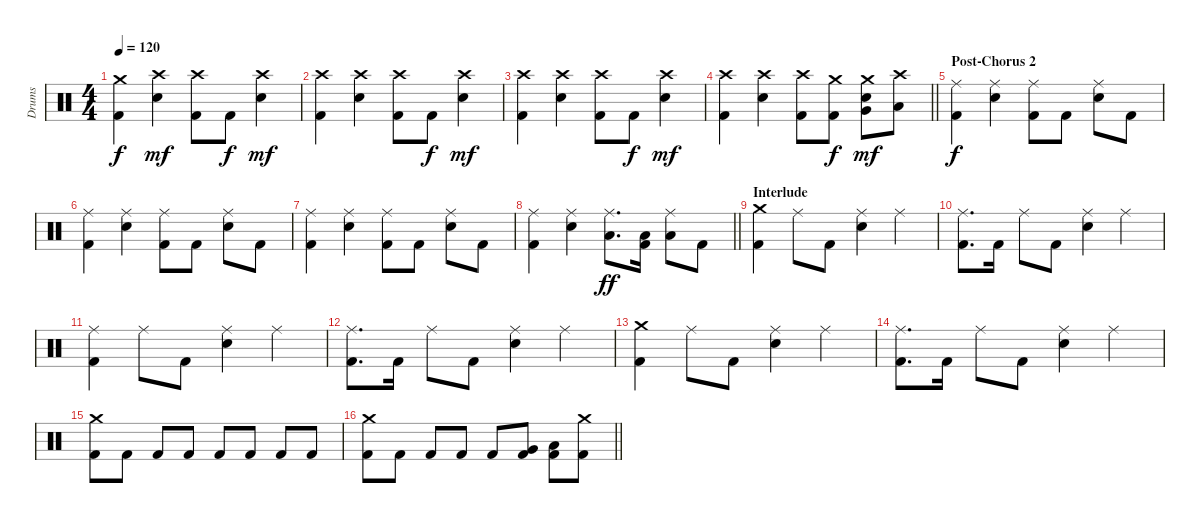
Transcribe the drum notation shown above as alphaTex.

\track ("Drums" "Drums") {instrument percussion}
\staff {score}
\articulation defaults
\ts (4 4)
\tempo 120
\clef neutral
\ks c
("Crash medium (hit)" "Kick (hit) 2").4{dy f} ("Crash high (hit)" "Electric Snare (hit)").4{dy mf} ("Crash high (hit)" "Kick (hit) 2").8 "Kick (hit) 2".8{dy f} ("Crash high (hit)" "Electric Snare (hit)").4{dy mf} |
("Crash high (hit)" "Kick (hit) 2").4 ("Crash high (hit)" "Electric Snare (hit)").4 ("Crash high (hit)" "Kick (hit) 2").8 "Kick (hit) 2".8{dy f} ("Crash high (hit)" "Electric Snare (hit)").4{dy mf} |
("Crash high (hit)" "Kick (hit) 2").4 ("Crash high (hit)" "Electric Snare (hit)").4 ("Crash high (hit)" "Kick (hit) 2").8 "Kick (hit) 2".8{dy f} ("Crash high (hit)" "Electric Snare (hit)").4{dy mf} |
\barLineRight lightlight
("Crash high (hit)" "Kick (hit) 2").4 ("Crash high (hit)" "Electric Snare (hit)").4 ("Crash high (hit)" "Kick (hit) 2").8 ("Crash medium (hit)" "Kick (hit) 2").8{dy f} ("Crash medium (hit)" "Very Low Tom (hit)" "Electric Snare (hit)").8{dy mf} ("Crash high (hit)" "Low Floor Tom (hit)").8 |
\section ("" "Post-Chorus 2")
("Ride (middle)" "Kick (hit) 2").4{dy f} ("Ride (middle)" "Electric Snare (hit)").4 ("Ride (middle)" "Kick (hit) 2").8 "Kick (hit) 2".8 ("Ride (middle)" "Electric Snare (hit)").8 "Kick (hit) 2".8 |
("Ride (middle)" "Kick (hit) 2").4 ("Ride (middle)" "Electric Snare (hit)").4 ("Ride (middle)" "Kick (hit) 2").8 "Kick (hit) 2".8 ("Ride (middle)" "Electric Snare (hit)").8 "Kick (hit) 2".8 |
("Ride (middle)" "Kick (hit) 2").4 ("Ride (middle)" "Electric Snare (hit)").4 ("Ride (middle)" "Kick (hit) 2").8 "Kick (hit) 2".8 ("Ride (middle)" "Electric Snare (hit)").8 "Kick (hit) 2".8 |
\barLineRight lightlight
("Ride (middle)" "Kick (hit) 2").4 ("Ride (middle)" "Electric Snare (hit)").4 ("Ride (middle)" "Low Floor Tom (hit)").8{d dy ff} ("Low Floor Tom (hit)" "Kick (hit) 2").16 ("Ride (middle)" "Low Floor Tom (hit)").8 "Kick (hit) 2".8 |
\section ("" "Interlude")
("Crash medium (hit)" "Kick (hit) 2").4 "Ride (middle)".8 "Kick (hit) 2".8 ("Ride (middle)" "Electric Snare (hit)").4 "Ride (middle)".4 |
("Ride (middle)" "Kick (hit) 2").8{d} "Kick (hit) 2".16 "Ride (middle)".8 "Kick (hit) 2".8 ("Ride (middle)" "Electric Snare (hit)").4 "Ride (middle)".4 |
("Ride (middle)" "Kick (hit) 2").4 "Ride (middle)".8 "Kick (hit) 2".8 ("Ride (middle)" "Electric Snare (hit)").4 "Ride (middle)".4 |
("Ride (middle)" "Kick (hit) 2").8{d} "Kick (hit) 2".16 "Ride (middle)".8 "Kick (hit) 2".8 ("Ride (middle)" "Electric Snare (hit)").4 "Ride (middle)".4 |
("Crash medium (hit)" "Kick (hit) 2").4 "Ride (middle)".8 "Kick (hit) 2".8 ("Ride (middle)" "Electric Snare (hit)").4 "Ride (middle)".4 |
("Ride (middle)" "Kick (hit) 2").8{d} "Kick (hit) 2".16 "Ride (middle)".8 "Kick (hit) 2".8 ("Ride (middle)" "Electric Snare (hit)").4 "Ride (middle)".4 |
("Crash medium (hit)" "Kick (hit) 2").8 "Kick (hit) 2".8 "Kick (hit) 2".8 "Kick (hit) 2".8 "Kick (hit) 2".8 "Kick (hit) 2".8 "Kick (hit) 2".8 "Kick (hit) 2".8 |
\barLineRight lightlight
("Crash medium (hit)" "Kick (hit) 2").8 "Kick (hit) 2".8 "Kick (hit) 2".8 "Kick (hit) 2".8 "Kick (hit) 2".8 ("Very Low Tom (hit)" "Kick (hit) 2").8 ("Low Floor Tom (hit)" "Kick (hit) 2").8 ("Crash medium (hit)" "Kick (hit) 2").8
